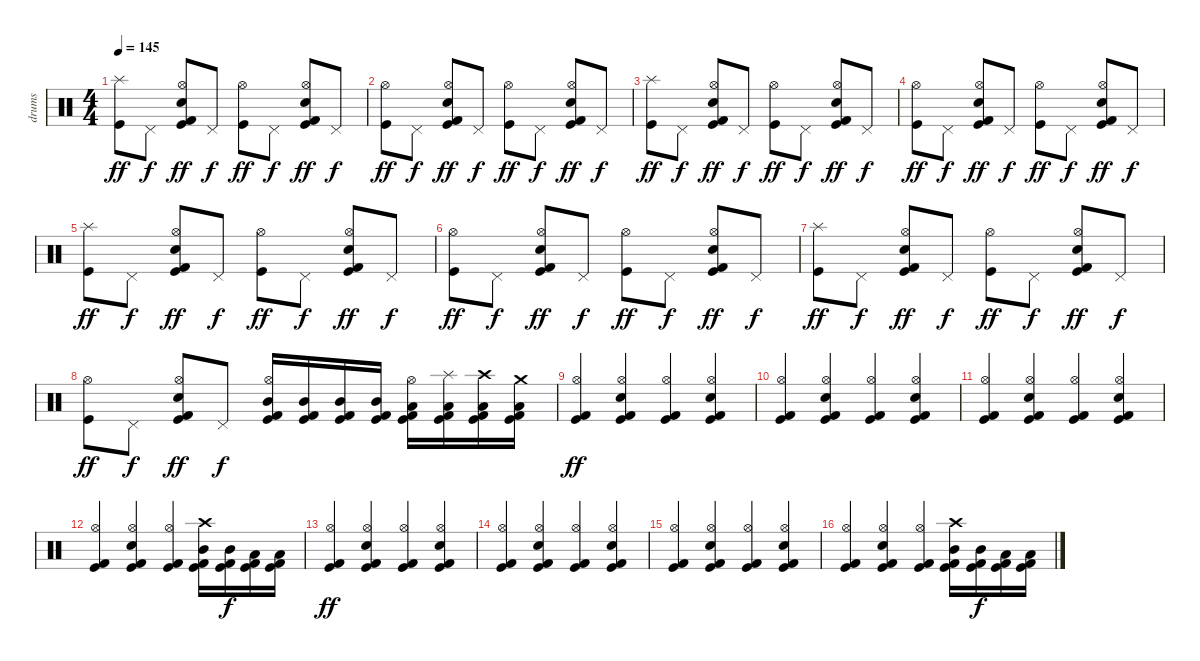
\track ("drums" "drums") {instrument percussion}
\staff {score}
\articulation defaults
\ts (4 4)
\tempo 145
\clef neutral
\ks c
("Splash (hit)" "Kick (hit)").8{dy ff} "Pedal Hi-Hat (hit)".8{dy f} ("Hi-Hat (open)" "Electric Snare (hit)" "Kick (hit) 2" "Kick (hit)").8{dy ff} "Pedal Hi-Hat (hit)".8{dy f} ("Hi-Hat (open)" "Kick (hit)").8{dy ff} "Pedal Hi-Hat (hit)".8{dy f} ("Hi-Hat (open)" "Electric Snare (hit)" "Kick (hit) 2" "Kick (hit)").8{dy ff} "Pedal Hi-Hat (hit)".8{dy f} |
("Hi-Hat (open)" "Kick (hit)").8{dy ff} "Pedal Hi-Hat (hit)".8{dy f} ("Hi-Hat (open)" "Electric Snare (hit)" "Kick (hit) 2" "Kick (hit)").8{dy ff} "Pedal Hi-Hat (hit)".8{dy f} ("Hi-Hat (open)" "Kick (hit)").8{dy ff} "Pedal Hi-Hat (hit)".8{dy f} ("Hi-Hat (open)" "Electric Snare (hit)" "Kick (hit) 2" "Kick (hit)").8{dy ff} "Pedal Hi-Hat (hit)".8{dy f} |
("Splash (hit)" "Kick (hit)").8{dy ff} "Pedal Hi-Hat (hit)".8{dy f} ("Hi-Hat (open)" "Electric Snare (hit)" "Kick (hit) 2" "Kick (hit)").8{dy ff} "Pedal Hi-Hat (hit)".8{dy f} ("Hi-Hat (open)" "Kick (hit)").8{dy ff} "Pedal Hi-Hat (hit)".8{dy f} ("Hi-Hat (open)" "Electric Snare (hit)" "Kick (hit) 2" "Kick (hit)").8{dy ff} "Pedal Hi-Hat (hit)".8{dy f} |
("Hi-Hat (open)" "Kick (hit)").8{dy ff} "Pedal Hi-Hat (hit)".8{dy f} ("Hi-Hat (open)" "Electric Snare (hit)" "Kick (hit) 2" "Kick (hit)").8{dy ff} "Pedal Hi-Hat (hit)".8{dy f} ("Hi-Hat (open)" "Kick (hit)").8{dy ff} "Pedal Hi-Hat (hit)".8{dy f} ("Hi-Hat (open)" "Electric Snare (hit)" "Kick (hit) 2" "Kick (hit)").8{dy ff} "Pedal Hi-Hat (hit)".8{dy f} |
("Splash (hit)" "Kick (hit)").8{dy ff} "Pedal Hi-Hat (hit)".8{dy f} ("Hi-Hat (open)" "Electric Snare (hit)" "Kick (hit) 2" "Kick (hit)").8{dy ff} "Pedal Hi-Hat (hit)".8{dy f} ("Hi-Hat (open)" "Kick (hit)").8{dy ff} "Pedal Hi-Hat (hit)".8{dy f} ("Hi-Hat (open)" "Electric Snare (hit)" "Kick (hit) 2" "Kick (hit)").8{dy ff} "Pedal Hi-Hat (hit)".8{dy f} |
("Hi-Hat (open)" "Kick (hit)").8{dy ff} "Pedal Hi-Hat (hit)".8{dy f} ("Hi-Hat (open)" "Electric Snare (hit)" "Kick (hit) 2" "Kick (hit)").8{dy ff} "Pedal Hi-Hat (hit)".8{dy f} ("Hi-Hat (open)" "Kick (hit)").8{dy ff} "Pedal Hi-Hat (hit)".8{dy f} ("Hi-Hat (open)" "Electric Snare (hit)" "Kick (hit) 2" "Kick (hit)").8{dy ff} "Pedal Hi-Hat (hit)".8{dy f} |
("Splash (hit)" "Kick (hit)").8{dy ff} "Pedal Hi-Hat (hit)".8{dy f} ("Hi-Hat (open)" "Electric Snare (hit)" "Kick (hit) 2" "Kick (hit)").8{dy ff} "Pedal Hi-Hat (hit)".8{dy f} ("Hi-Hat (open)" "Kick (hit)").8{dy ff} "Pedal Hi-Hat (hit)".8{dy f} ("Hi-Hat (open)" "Electric Snare (hit)" "Kick (hit) 2" "Kick (hit)").8{dy ff} "Pedal Hi-Hat (hit)".8{dy f} |
("Hi-Hat (open)" "Kick (hit)").8{dy ff} "Pedal Hi-Hat (hit)".8{dy f} ("Hi-Hat (open)" "Electric Snare (hit)" "Kick (hit) 2" "Kick (hit)").8{dy ff} "Pedal Hi-Hat (hit)".8{dy f} ("Hi-Hat (open)" "Mid Tom (hit)" "Kick (hit) 2" "Kick (hit)").16 ("Mid Tom (hit)" "Kick (hit) 2" "Kick (hit)").16 ("Mid Tom (hit)" "Kick (hit) 2" "Kick (hit)").16 ("Mid Tom (hit)" "Kick (hit) 2" "Kick (hit)").16 ("Hi-Hat (open)" "Low Floor Tom (hit)" "Kick (hit) 2" "Kick (hit)").16 ("Splash (hit)" "Low Floor Tom (hit)" "Kick (hit) 2" "Kick (hit)").16 ("Crash high (hit)" "Low Floor Tom (hit)" "Kick (hit) 2" "Kick (hit)").16 ("Crash medium (hit)" "Low Floor Tom (hit)" "Kick (hit) 2" "Kick (hit)").16 |
("Hi-Hat (open)" "Kick (hit) 2" "Kick (hit)").4{dy ff} ("Hi-Hat (open)" "Electric Snare (hit)" "Kick (hit) 2" "Kick (hit)").4 ("Hi-Hat (open)" "Kick (hit) 2" "Kick (hit)").4 ("Hi-Hat (open)" "Electric Snare (hit)" "Kick (hit) 2" "Kick (hit)").4 |
("Hi-Hat (open)" "Kick (hit) 2" "Kick (hit)").4 ("Hi-Hat (open)" "Electric Snare (hit)" "Kick (hit) 2" "Kick (hit)").4 ("Hi-Hat (open)" "Kick (hit) 2" "Kick (hit)").4 ("Hi-Hat (open)" "Electric Snare (hit)" "Kick (hit) 2" "Kick (hit)").4 |
("Hi-Hat (open)" "Kick (hit) 2" "Kick (hit)").4 ("Hi-Hat (open)" "Electric Snare (hit)" "Kick (hit) 2" "Kick (hit)").4 ("Hi-Hat (open)" "Kick (hit) 2" "Kick (hit)").4 ("Hi-Hat (open)" "Electric Snare (hit)" "Kick (hit) 2" "Kick (hit)").4 |
("Hi-Hat (open)" "Kick (hit) 2" "Kick (hit)").4 ("Hi-Hat (open)" "Electric Snare (hit)" "Kick (hit) 2" "Kick (hit)").4 ("Hi-Hat (open)" "Kick (hit) 2" "Kick (hit)").4 ("Crash high (hit)" "Mid Tom (hit)" "Kick (hit) 2" "Kick (hit)").16 ("Mid Tom (hit)" "Kick (hit) 2" "Kick (hit)").16{dy f} ("Low Floor Tom (hit)" "Kick (hit) 2" "Kick (hit)").16 ("Low Floor Tom (hit)" "Kick (hit) 2" "Kick (hit)").16 |
("Hi-Hat (open)" "Kick (hit) 2" "Kick (hit)").4{dy ff} ("Hi-Hat (open)" "Electric Snare (hit)" "Kick (hit) 2" "Kick (hit)").4 ("Hi-Hat (open)" "Kick (hit) 2" "Kick (hit)").4 ("Hi-Hat (open)" "Electric Snare (hit)" "Kick (hit) 2" "Kick (hit)").4 |
("Hi-Hat (open)" "Kick (hit) 2" "Kick (hit)").4 ("Hi-Hat (open)" "Electric Snare (hit)" "Kick (hit) 2" "Kick (hit)").4 ("Hi-Hat (open)" "Kick (hit) 2" "Kick (hit)").4 ("Hi-Hat (open)" "Electric Snare (hit)" "Kick (hit) 2" "Kick (hit)").4 |
("Hi-Hat (open)" "Kick (hit) 2" "Kick (hit)").4 ("Hi-Hat (open)" "Electric Snare (hit)" "Kick (hit) 2" "Kick (hit)").4 ("Hi-Hat (open)" "Kick (hit) 2" "Kick (hit)").4 ("Hi-Hat (open)" "Electric Snare (hit)" "Kick (hit) 2" "Kick (hit)").4 |
("Hi-Hat (open)" "Kick (hit) 2" "Kick (hit)").4 ("Hi-Hat (open)" "Electric Snare (hit)" "Kick (hit) 2" "Kick (hit)").4 ("Hi-Hat (open)" "Kick (hit) 2" "Kick (hit)").4 ("Crash high (hit)" "Mid Tom (hit)" "Kick (hit) 2" "Kick (hit)").16 ("Mid Tom (hit)" "Kick (hit) 2" "Kick (hit)").16{dy f} ("Low Floor Tom (hit)" "Kick (hit) 2" "Kick (hit)").16 ("Low Floor Tom (hit)" "Kick (hit) 2" "Kick (hit)").16
